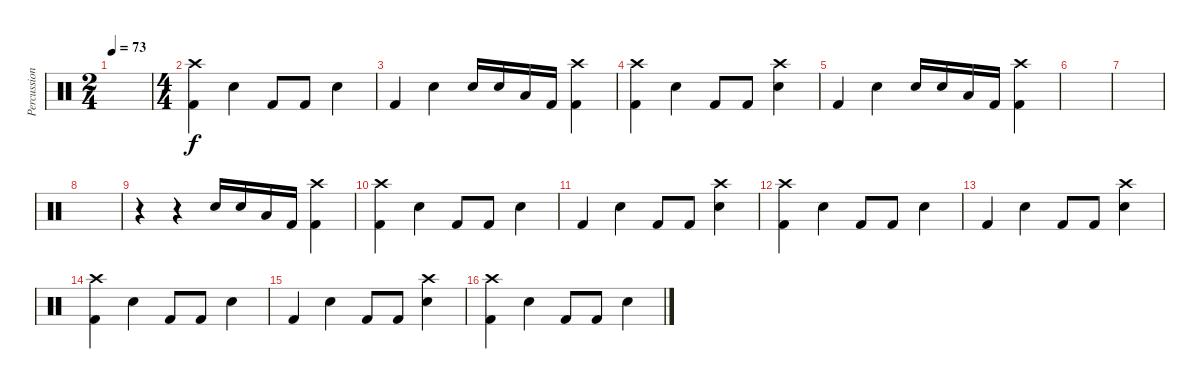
\track ("Percussion" "Percussion") {instrument percussion}
\staff {score}
\articulation defaults
\ts (2 4)
\tempo 73
\clef neutral
\ks c
|
\ts (4 4)
("Kick (hit) 2" "Crash high (hit)").4 "Snare (hit) 2".4 "Kick (hit) 2".8 "Kick (hit) 2".8 "Snare (hit) 2".4 |
"Kick (hit) 2".4 "Snare (hit) 2".4 "Snare (hit) 2".16 "Electric Snare (hit)".16 "Low Floor Tom (hit)".16 "Kick (hit) 2".16 ("Kick (hit) 2" "Crash high (hit)").4 |
("Kick (hit) 2" "Crash high (hit)").4 "Snare (hit) 2".4 "Kick (hit) 2".8 "Kick (hit) 2".8 ("Snare (hit) 2" "Crash high (hit)").4 |
"Kick (hit) 2".4 "Snare (hit) 2".4 "Snare (hit) 2".16 "Electric Snare (hit)".16 "Low Floor Tom (hit)".16 "Kick (hit) 2".16 ("Kick (hit) 2" "Crash high (hit)").4 |
|
|
|
r.4 r.4 "Snare (hit) 2".16 "Electric Snare (hit)".16 "Low Floor Tom (hit)".16 "Kick (hit) 2".16 ("Kick (hit) 2" "Crash high (hit)").4 |
("Kick (hit) 2" "Crash high (hit)").4 "Snare (hit) 2".4 "Kick (hit) 2".8 "Kick (hit) 2".8 "Snare (hit) 2".4 |
"Kick (hit) 2".4 "Snare (hit) 2".4 "Kick (hit) 2".8 "Kick (hit) 2".8 ("Snare (hit) 2" "Crash high (hit)").4 |
("Kick (hit) 2" "Crash high (hit)").4 "Snare (hit) 2".4 "Kick (hit) 2".8 "Kick (hit) 2".8 "Snare (hit) 2".4 |
"Kick (hit) 2".4 "Snare (hit) 2".4 "Kick (hit) 2".8 "Kick (hit) 2".8 ("Snare (hit) 2" "Crash high (hit)").4 |
("Kick (hit) 2" "Crash high (hit)").4 "Snare (hit) 2".4 "Kick (hit) 2".8 "Kick (hit) 2".8 "Snare (hit) 2".4 |
"Kick (hit) 2".4 "Snare (hit) 2".4 "Kick (hit) 2".8 "Kick (hit) 2".8 ("Snare (hit) 2" "Crash high (hit)").4 |
("Kick (hit) 2" "Crash high (hit)").4 "Snare (hit) 2".4 "Kick (hit) 2".8 "Kick (hit) 2".8 "Snare (hit) 2".4
